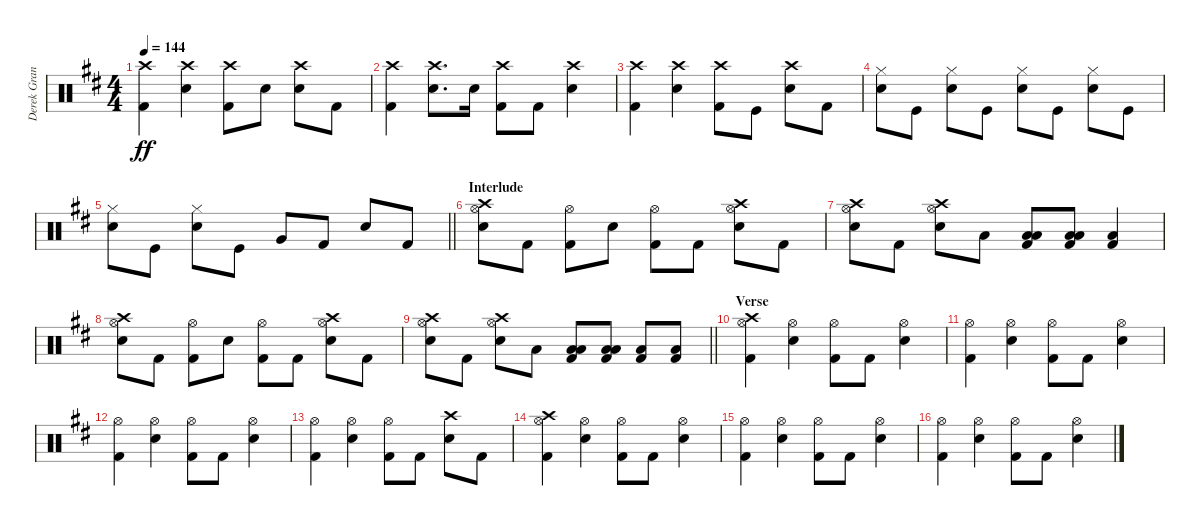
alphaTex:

\track ("Derek Grant - Drums" "Derek Gran") {instrument percussion}
\staff {score}
\articulation defaults
\ts (4 4)
\tempo 144
\clef neutral
\ks d
("Kick (hit) 2" "Crash high (hit)").4{dy ff} ("Snare (hit) 2" "Crash high (hit)").4 ("Kick (hit) 2" "Crash high (hit)").8 "Snare (hit) 2".8 ("Snare (hit) 2" "Crash high (hit)").8 "Kick (hit) 2".8 |
("Crash high (hit)" "Kick (hit) 2").4 ("Snare (hit) 2" "Crash high (hit)").8{d} "Snare (hit) 2".16 ("Kick (hit) 2" "Crash high (hit)").8 "Kick (hit) 2".8 ("Snare (hit) 2" "Crash high (hit)").4 |
("Kick (hit) 2" "Crash high (hit)").4 ("Snare (hit) 2" "Crash high (hit)").4 ("Kick (hit) 2" "Crash high (hit)").8 "Kick (hit)".8 ("Snare (hit) 2" "Crash high (hit)").8 "Kick (hit) 2".8 |
("Hi-Hat (closed)" "Snare (hit) 2").8 "Kick (hit)".8 ("Hi-Hat (closed)" "Snare (hit) 2").8 "Kick (hit)".8 ("Hi-Hat (closed)" "Snare (hit) 2").8 "Kick (hit)".8 ("Hi-Hat (closed)" "Snare (hit) 2").8 "Kick (hit)".8 |
\barLineRight lightlight
("Hi-Hat (closed)" "Snare (hit) 2").8 "Kick (hit)".8 ("Hi-Hat (closed)" "Snare (hit) 2").8 "Kick (hit)".8 "Very Low Tom (hit)".8 "Kick (hit) 2".8 "Snare (hit) 2".8 "Kick (hit) 2".8 |
\section ("" "Interlude")
("Crash high (hit)" "Hi-Hat (open)" "Snare (hit) 2").8 "Kick (hit) 2".8 ("Hi-Hat (open)" "Kick (hit) 2").8 "Snare (hit) 2".8 ("Hi-Hat (open)" "Kick (hit) 2").8 "Kick (hit) 2".8 ("Crash high (hit)" "Hi-Hat (open)" "Snare (hit) 2").8 "Kick (hit) 2".8 |
("Crash high (hit)" "Hi-Hat (open)" "Snare (hit) 2").8 "Kick (hit) 2".8 ("Crash high (hit)" "Hi-Hat (open)" "Snare (hit) 2").8 "Low Tom (hit)".8 ("Low Floor Tom (hit)" "Kick (hit) 2" "Low Tom (hit)").8 ("Low Floor Tom (hit)" "Kick (hit) 2" "Low Tom (hit)").8 ("Low Floor Tom (hit)" "Kick (hit) 2").4 |
("Crash high (hit)" "Hi-Hat (open)" "Snare (hit) 2").8 "Kick (hit) 2".8 ("Hi-Hat (open)" "Kick (hit) 2").8 "Snare (hit) 2".8 ("Hi-Hat (open)" "Kick (hit) 2").8 "Kick (hit) 2".8 ("Crash high (hit)" "Hi-Hat (open)" "Snare (hit) 2").8 "Kick (hit) 2".8 |
\barLineRight lightlight
("Crash high (hit)" "Hi-Hat (open)" "Snare (hit) 2").8 "Kick (hit) 2".8 ("Crash high (hit)" "Hi-Hat (open)" "Snare (hit) 2").8 "Low Tom (hit)".8 ("Low Floor Tom (hit)" "Kick (hit) 2" "Low Tom (hit)").8 ("Low Floor Tom (hit)" "Kick (hit) 2" "Low Tom (hit)").8 ("Low Floor Tom (hit)" "Kick (hit) 2").8 ("Low Floor Tom (hit)" "Kick (hit) 2").8 |
\section ("" "Verse")
("Crash high (hit)" "Kick (hit) 2" "Hi-Hat (open)").4 ("Snare (hit) 2" "Hi-Hat (open)").4 ("Hi-Hat (open)" "Kick (hit) 2").8 "Kick (hit) 2".8 ("Snare (hit) 2" "Hi-Hat (open)").4 |
("Hi-Hat (open)" "Kick (hit) 2").4 ("Snare (hit) 2" "Hi-Hat (open)").4 ("Hi-Hat (open)" "Kick (hit) 2").8 "Kick (hit) 2".8 ("Snare (hit) 2" "Hi-Hat (open)").4 |
("Hi-Hat (open)" "Kick (hit) 2").4 ("Snare (hit) 2" "Hi-Hat (open)").4 ("Hi-Hat (open)" "Kick (hit) 2").8 "Kick (hit) 2".8 ("Snare (hit) 2" "Hi-Hat (open)").4 |
("Hi-Hat (open)" "Kick (hit) 2").4 ("Snare (hit) 2" "Hi-Hat (open)").4 ("Hi-Hat (open)" "Kick (hit) 2").8 "Kick (hit) 2".8 ("Snare (hit) 2" "Crash high (hit)").8 "Kick (hit) 2".8 |
("Crash high (hit)" "Kick (hit) 2" "Hi-Hat (open)").4 ("Snare (hit) 2" "Hi-Hat (open)").4 ("Hi-Hat (open)" "Kick (hit) 2").8 "Kick (hit) 2".8 ("Snare (hit) 2" "Hi-Hat (open)").4 |
("Hi-Hat (open)" "Kick (hit) 2").4 ("Snare (hit) 2" "Hi-Hat (open)").4 ("Hi-Hat (open)" "Kick (hit) 2").8 "Kick (hit) 2".8 ("Snare (hit) 2" "Hi-Hat (open)").4 |
("Hi-Hat (open)" "Kick (hit) 2").4 ("Snare (hit) 2" "Hi-Hat (open)").4 ("Hi-Hat (open)" "Kick (hit) 2").8 "Kick (hit) 2".8 ("Snare (hit) 2" "Hi-Hat (open)").4
